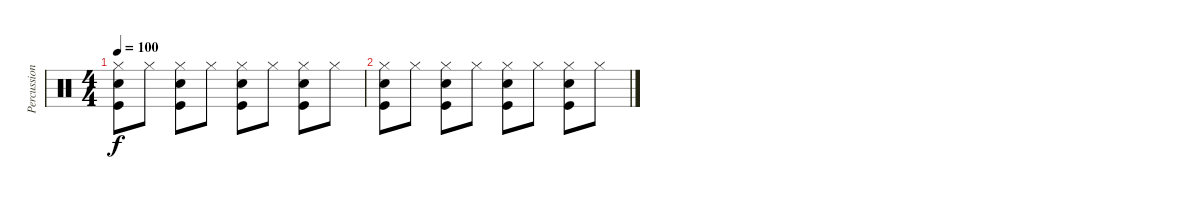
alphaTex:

\track ("Percussion" "Percussion") {instrument percussion}
\staff {score}
\articulation defaults
\ts (4 4)
\tempo 100
\clef neutral
\ks c
("Hi-Hat (closed)" "Snare (hit) 2" "Kick (hit)").8{dy f} "Hi-Hat (closed)".8 ("Hi-Hat (closed)" "Snare (hit) 2" "Kick (hit)").8 "Hi-Hat (closed)".8 ("Hi-Hat (closed)" "Snare (hit) 2" "Kick (hit)").8 "Hi-Hat (closed)".8 ("Hi-Hat (closed)" "Snare (hit) 2" "Kick (hit)").8 "Hi-Hat (closed)".8 |
("Hi-Hat (closed)" "Snare (hit) 2" "Kick (hit)").8 "Hi-Hat (closed)".8 ("Hi-Hat (closed)" "Snare (hit) 2" "Kick (hit)").8 "Hi-Hat (closed)".8 ("Hi-Hat (closed)" "Snare (hit) 2" "Kick (hit)").8 "Hi-Hat (closed)".8 ("Hi-Hat (closed)" "Snare (hit) 2" "Kick (hit)").8 "Hi-Hat (closed)".8
